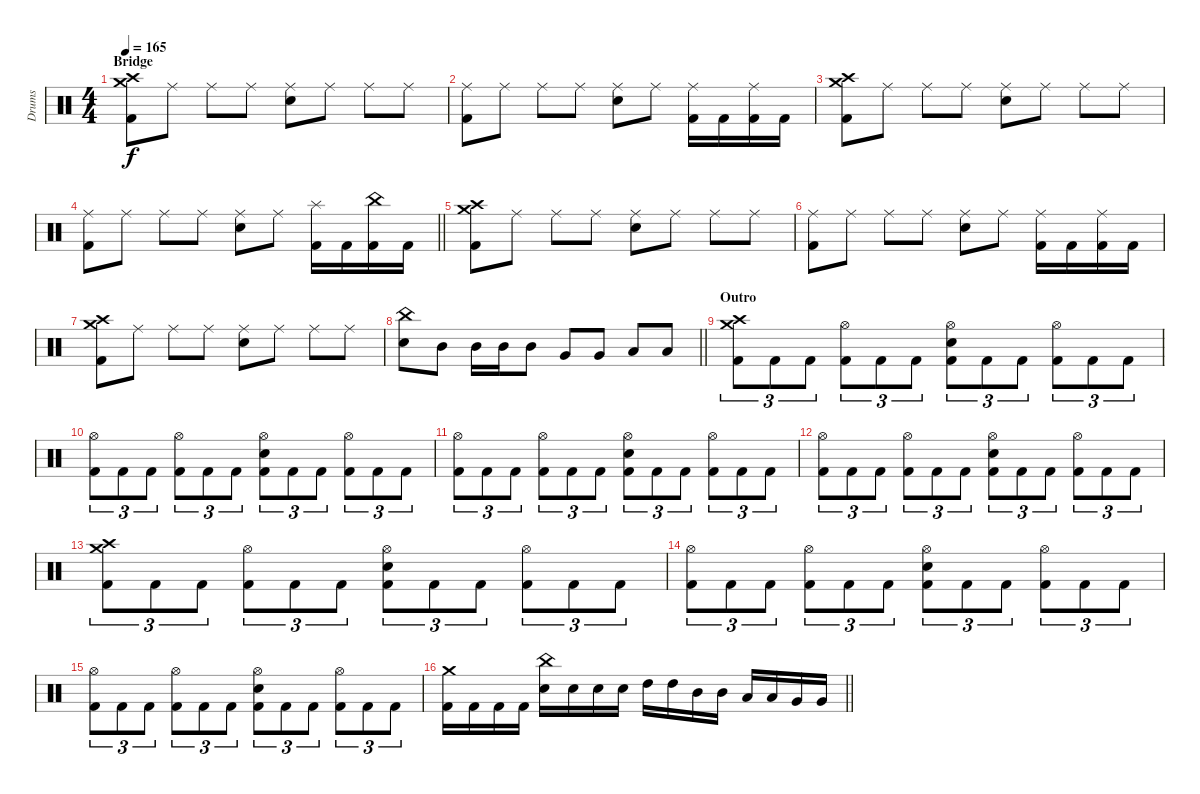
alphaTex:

\track ("Drums" "Drums") {instrument percussion}
\staff {score}
\articulation defaults
\ts (4 4)
\section ("" "Bridge")
\tempo 165
\clef neutral
\ks c
("Crash medium (hit)" "Crash high (hit)" "Kick (hit) 2").8{dy f} "Ride (middle)".8 "Ride (middle)".8 "Ride (middle)".8 ("Ride (middle)" "Electric Snare (hit)").8 "Ride (middle)".8 "Ride (middle)".8 "Ride (middle)".8 |
("Ride (middle)" "Kick (hit) 2").8 "Ride (middle)".8 "Ride (middle)".8 "Ride (middle)".8 ("Ride (middle)" "Electric Snare (hit)").8 "Ride (middle)".8 ("Ride (middle)" "Kick (hit) 2").16 "Kick (hit) 2".16 ("Ride (middle)" "Kick (hit) 2").16 "Kick (hit) 2".16 |
("Crash medium (hit)" "Crash high (hit)" "Kick (hit) 2").8 "Ride (middle)".8 "Ride (middle)".8 "Ride (middle)".8 ("Ride (middle)" "Electric Snare (hit)").8 "Ride (middle)".8 "Ride (middle)".8 "Ride (middle)".8 |
\barLineRight lightlight
("Ride (middle)" "Kick (hit) 2").8 "Ride (middle)".8 "Ride (middle)".8 "Ride (middle)".8 ("Ride (middle)" "Electric Snare (hit)").8 "Ride (middle)".8 ("Splash (hit)" "Kick (hit) 2").16 "Kick (hit) 2".16 ("China (hit)" "Kick (hit) 2").16 "Kick (hit) 2".16 |
("Crash medium (hit)" "Crash high (hit)" "Kick (hit) 2").8 "Ride (middle)".8 "Ride (middle)".8 "Ride (middle)".8 ("Ride (middle)" "Electric Snare (hit)").8 "Ride (middle)".8 "Ride (middle)".8 "Ride (middle)".8 |
("Ride (middle)" "Kick (hit) 2").8 "Ride (middle)".8 "Ride (middle)".8 "Ride (middle)".8 ("Ride (middle)" "Electric Snare (hit)").8 "Ride (middle)".8 ("Ride (middle)" "Kick (hit) 2").16 "Kick (hit) 2".16 ("Ride (middle)" "Kick (hit) 2").16 "Kick (hit) 2".16 |
("Crash medium (hit)" "Crash high (hit)" "Kick (hit) 2").8 "Ride (middle)".8 "Ride (middle)".8 "Ride (middle)".8 ("Ride (middle)" "Electric Snare (hit)").8 "Ride (middle)".8 "Ride (middle)".8 "Ride (middle)".8 |
\barLineRight lightlight
("China (hit)" "Electric Snare (hit)").8 "Mid Tom (hit)".8 "Mid Tom (hit)".16 "Mid Tom (hit)".16 "Mid Tom (hit)".8 "Very Low Tom (hit)".8 "Very Low Tom (hit)".8 "Low Tom (hit)".8 "Low Tom (hit)".8 |
\section ("" "Outro")
("Crash medium (hit)" "Crash high (hit)" "Kick (hit) 2").8{tu (3 2)} "Kick (hit) 2".8{tu (3 2)} "Kick (hit) 2".8{tu (3 2)} ("Hi-Hat (open)" "Kick (hit) 2").8{tu (3 2)} "Kick (hit) 2".8{tu (3 2)} "Kick (hit) 2".8{tu (3 2)} ("Hi-Hat (open)" "Electric Snare (hit)" "Kick (hit) 2").8{tu (3 2)} "Kick (hit) 2".8{tu (3 2)} "Kick (hit) 2".8{tu (3 2)} ("Hi-Hat (open)" "Kick (hit) 2").8{tu (3 2)} "Kick (hit) 2".8{tu (3 2)} "Kick (hit) 2".8{tu (3 2)} |
("Hi-Hat (open)" "Kick (hit) 2").8{tu (3 2)} "Kick (hit) 2".8{tu (3 2)} "Kick (hit) 2".8{tu (3 2)} ("Hi-Hat (open)" "Kick (hit) 2").8{tu (3 2)} "Kick (hit) 2".8{tu (3 2)} "Kick (hit) 2".8{tu (3 2)} ("Hi-Hat (open)" "Electric Snare (hit)" "Kick (hit) 2").8{tu (3 2)} "Kick (hit) 2".8{tu (3 2)} "Kick (hit) 2".8{tu (3 2)} ("Hi-Hat (open)" "Kick (hit) 2").8{tu (3 2)} "Kick (hit) 2".8{tu (3 2)} "Kick (hit) 2".8{tu (3 2)} |
("Hi-Hat (open)" "Kick (hit) 2").8{tu (3 2)} "Kick (hit) 2".8{tu (3 2)} "Kick (hit) 2".8{tu (3 2)} ("Hi-Hat (open)" "Kick (hit) 2").8{tu (3 2)} "Kick (hit) 2".8{tu (3 2)} "Kick (hit) 2".8{tu (3 2)} ("Hi-Hat (open)" "Electric Snare (hit)" "Kick (hit) 2").8{tu (3 2)} "Kick (hit) 2".8{tu (3 2)} "Kick (hit) 2".8{tu (3 2)} ("Hi-Hat (open)" "Kick (hit) 2").8{tu (3 2)} "Kick (hit) 2".8{tu (3 2)} "Kick (hit) 2".8{tu (3 2)} |
("Hi-Hat (open)" "Kick (hit) 2").8{tu (3 2)} "Kick (hit) 2".8{tu (3 2)} "Kick (hit) 2".8{tu (3 2)} ("Hi-Hat (open)" "Kick (hit) 2").8{tu (3 2)} "Kick (hit) 2".8{tu (3 2)} "Kick (hit) 2".8{tu (3 2)} ("Hi-Hat (open)" "Electric Snare (hit)" "Kick (hit) 2").8{tu (3 2)} "Kick (hit) 2".8{tu (3 2)} "Kick (hit) 2".8{tu (3 2)} ("Hi-Hat (open)" "Kick (hit) 2").8{tu (3 2)} "Kick (hit) 2".8{tu (3 2)} "Kick (hit) 2".8{tu (3 2)} |
("Crash medium (hit)" "Crash high (hit)" "Kick (hit) 2").8{tu (3 2)} "Kick (hit) 2".8{tu (3 2)} "Kick (hit) 2".8{tu (3 2)} ("Hi-Hat (open)" "Kick (hit) 2").8{tu (3 2)} "Kick (hit) 2".8{tu (3 2)} "Kick (hit) 2".8{tu (3 2)} ("Hi-Hat (open)" "Electric Snare (hit)" "Kick (hit) 2").8{tu (3 2)} "Kick (hit) 2".8{tu (3 2)} "Kick (hit) 2".8{tu (3 2)} ("Hi-Hat (open)" "Kick (hit) 2").8{tu (3 2)} "Kick (hit) 2".8{tu (3 2)} "Kick (hit) 2".8{tu (3 2)} |
("Hi-Hat (open)" "Kick (hit) 2").8{tu (3 2)} "Kick (hit) 2".8{tu (3 2)} "Kick (hit) 2".8{tu (3 2)} ("Hi-Hat (open)" "Kick (hit) 2").8{tu (3 2)} "Kick (hit) 2".8{tu (3 2)} "Kick (hit) 2".8{tu (3 2)} ("Hi-Hat (open)" "Electric Snare (hit)" "Kick (hit) 2").8{tu (3 2)} "Kick (hit) 2".8{tu (3 2)} "Kick (hit) 2".8{tu (3 2)} ("Hi-Hat (open)" "Kick (hit) 2").8{tu (3 2)} "Kick (hit) 2".8{tu (3 2)} "Kick (hit) 2".8{tu (3 2)} |
("Hi-Hat (open)" "Kick (hit) 2").8{tu (3 2)} "Kick (hit) 2".8{tu (3 2)} "Kick (hit) 2".8{tu (3 2)} ("Hi-Hat (open)" "Kick (hit) 2").8{tu (3 2)} "Kick (hit) 2".8{tu (3 2)} "Kick (hit) 2".8{tu (3 2)} ("Hi-Hat (open)" "Electric Snare (hit)" "Kick (hit) 2").8{tu (3 2)} "Kick (hit) 2".8{tu (3 2)} "Kick (hit) 2".8{tu (3 2)} ("Hi-Hat (open)" "Kick (hit) 2").8{tu (3 2)} "Kick (hit) 2".8{tu (3 2)} "Kick (hit) 2".8{tu (3 2)} |
\barLineRight lightlight
("Crash medium (hit)" "Kick (hit) 2").16 "Kick (hit) 2".16 "Kick (hit) 2".16 "Kick (hit) 2".16 ("China (hit)" "Electric Snare (hit)").16 "Electric Snare (hit)".16 "Electric Snare (hit)".16 "Electric Snare (hit)".16 "High Tom (hit)".16 "High Tom (hit)".16 "Mid Tom (hit)".16 "Mid Tom (hit)".16 "Low Tom (hit)".16 "Low Tom (hit)".16 "Very Low Tom (hit)".16 "Very Low Tom (hit)".16
